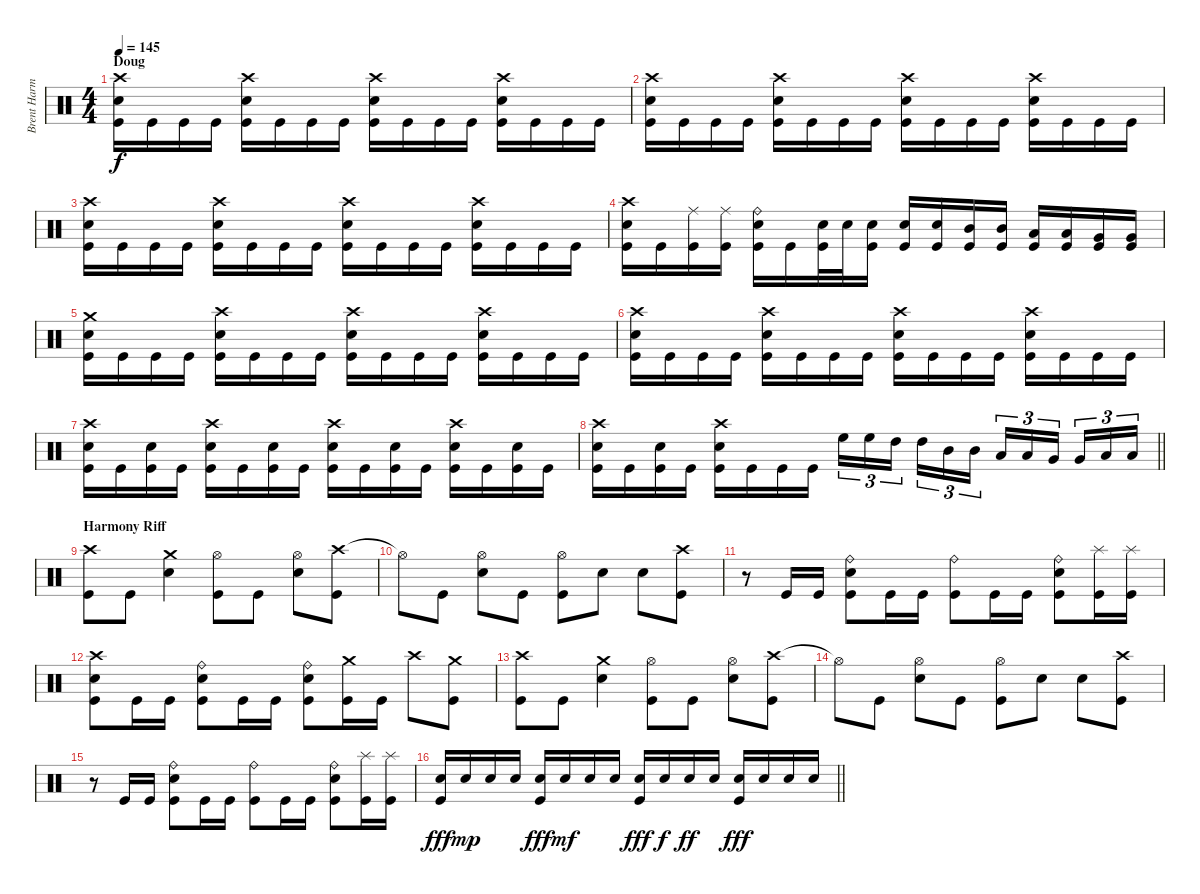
\track ("Brent Harman" "Brent Harm") {instrument percussion}
\staff {score}
\articulation defaults
\ts (4 4)
\section ("" "Doug")
\tempo 145
\clef neutral
\ks c
("Crash high (hit)" "Snare (hit) 2" "Kick (hit)").16{dy f} "Kick (hit)".16 "Kick (hit)".16 "Kick (hit)".16 ("Crash high (hit)" "Snare (hit) 2" "Kick (hit)").16 "Kick (hit)".16 "Kick (hit)".16 "Kick (hit)".16 ("Crash high (hit)" "Snare (hit) 2" "Kick (hit)").16 "Kick (hit)".16 "Kick (hit)".16 "Kick (hit)".16 ("Crash high (hit)" "Snare (hit) 2" "Kick (hit)").16 "Kick (hit)".16 "Kick (hit)".16 "Kick (hit)".16 |
("Crash high (hit)" "Snare (hit) 2" "Kick (hit)").16 "Kick (hit)".16 "Kick (hit)".16 "Kick (hit)".16 ("Crash high (hit)" "Snare (hit) 2" "Kick (hit)").16 "Kick (hit)".16 "Kick (hit)".16 "Kick (hit)".16 ("Crash high (hit)" "Snare (hit) 2" "Kick (hit)").16 "Kick (hit)".16 "Kick (hit)".16 "Kick (hit)".16 ("Crash high (hit)" "Snare (hit) 2" "Kick (hit)").16 "Kick (hit)".16 "Kick (hit)".16 "Kick (hit)".16 |
("Crash high (hit)" "Snare (hit) 2" "Kick (hit)").16 "Kick (hit)".16 "Kick (hit)".16 "Kick (hit)".16 ("Crash high (hit)" "Snare (hit) 2" "Kick (hit)").16 "Kick (hit)".16 "Kick (hit)".16 "Kick (hit)".16 ("Crash high (hit)" "Snare (hit) 2" "Kick (hit)").16 "Kick (hit)".16 "Kick (hit)".16 "Kick (hit)".16 ("Crash high (hit)" "Snare (hit) 2" "Kick (hit)").16 "Kick (hit)".16 "Kick (hit)".16 "Kick (hit)".16 |
("Crash high (hit)" "Snare (hit) 2" "Kick (hit)").16 "Kick (hit)".16 ("Ride (middle)" "Kick (hit)").16 ("Ride (middle)" "Kick (hit)").16 ("Ride (bell)" "Snare (hit) 2" "Kick (hit)").16 "Kick (hit)".16 ("Snare (hit) 2" "Kick (hit)").32 "Snare (hit) 2".32 ("Snare (hit) 2" "Kick (hit)").16 ("Snare (hit) 2" "Kick (hit)").16 ("Snare (hit) 2" "Kick (hit)").16 ("Mid Tom (hit)" "Kick (hit)").16 ("Mid Tom (hit)" "Kick (hit)").16 ("Low Tom (hit)" "Kick (hit)").16 ("Low Tom (hit)" "Kick (hit)").16 ("Very Low Tom (hit)" "Kick (hit)").16 ("Very Low Tom (hit)" "Kick (hit)").16 |
("Crash medium (hit)" "Snare (hit) 2" "Kick (hit)").16 "Kick (hit)".16 "Kick (hit)".16 "Kick (hit)".16 ("Crash high (hit)" "Snare (hit) 2" "Kick (hit)").16 "Kick (hit)".16 "Kick (hit)".16 "Kick (hit)".16 ("Crash high (hit)" "Snare (hit) 2" "Kick (hit)").16 "Kick (hit)".16 "Kick (hit)".16 "Kick (hit)".16 ("Crash high (hit)" "Snare (hit) 2" "Kick (hit)").16 "Kick (hit)".16 "Kick (hit)".16 "Kick (hit)".16 |
("Crash high (hit)" "Snare (hit) 2" "Kick (hit)").16 "Kick (hit)".16 "Kick (hit)".16 "Kick (hit)".16 ("Crash high (hit)" "Snare (hit) 2" "Kick (hit)").16 "Kick (hit)".16 "Kick (hit)".16 "Kick (hit)".16 ("Crash high (hit)" "Snare (hit) 2" "Kick (hit)").16 "Kick (hit)".16 "Kick (hit)".16 "Kick (hit)".16 ("Crash high (hit)" "Snare (hit) 2" "Kick (hit)").16 "Kick (hit)".16 "Kick (hit)".16 "Kick (hit)".16 |
("Crash high (hit)" "Snare (hit) 2" "Kick (hit)").16 "Kick (hit)".16 ("Snare (hit) 2" "Kick (hit)").16 "Kick (hit)".16 ("Crash high (hit)" "Snare (hit) 2" "Kick (hit)").16 "Kick (hit)".16 ("Snare (hit) 2" "Kick (hit)").16 "Kick (hit)".16 ("Crash high (hit)" "Snare (hit) 2" "Kick (hit)").16 "Kick (hit)".16 ("Snare (hit) 2" "Kick (hit)").16 "Kick (hit)".16 ("Crash high (hit)" "Snare (hit) 2" "Kick (hit)").16 "Kick (hit)".16 ("Snare (hit) 2" "Kick (hit)").16 "Kick (hit)".16 |
\barLineRight lightlight
("Crash high (hit)" "Snare (hit) 2" "Kick (hit)").16 "Kick (hit)".16 ("Snare (hit) 2" "Kick (hit)").16 "Kick (hit)".16 ("Crash high (hit)" "Snare (hit) 2" "Kick (hit)").16 "Kick (hit)".16 "Kick (hit)".16 "Kick (hit)".16 "High Floor Tom (hit)".16{tu (3 2)} "High Floor Tom (hit)".16{tu (3 2)} "High Tom (hit)".16{tu (3 2) beam splitsecondary} "High Tom (hit)".16{tu (3 2)} "Mid Tom (hit)".16{tu (3 2)} "Mid Tom (hit)".16{tu (3 2)} "Low Tom (hit)".16{tu (3 2)} "Low Tom (hit)".16{tu (3 2)} "Very Low Tom (hit)".16{tu (3 2) beam splitsecondary} "Very Low Tom (hit)".16{tu (3 2)} "Low Floor Tom (hit)".16{tu (3 2)} "Low Floor Tom (hit)".16{tu (3 2)} |
\section ("" "Harmony Riff")
("Crash high (hit)" "Kick (hit)").8 "Kick (hit)".8 ("Crash medium (hit)" "Snare (hit) 2").4 ("Hi-Hat (open)" "Kick (hit)").8 "Kick (hit)".8 ("Hi-Hat (open)" "Snare (hit) 2").8 ("Crash high (hit)" "Kick (hit)").8 |
"Hi-Hat (open)"{t}.8 "Kick (hit)".8 ("Hi-Hat (open)" "Snare (hit) 2").8 "Kick (hit)".8 ("Hi-Hat (open)" "Kick (hit)").8 "Snare (hit) 2".8 "Snare (hit) 2".8 ("Crash high (hit)" "Kick (hit)").8 |
r.8 "Kick (hit)".16 "Kick (hit)".16 ("Ride (bell)" "Snare (hit) 2" "Kick (hit)").8 "Kick (hit)".16 "Kick (hit)".16 ("Ride (bell)" "Kick (hit)").8 "Kick (hit)".16 "Kick (hit)".16 ("Ride (bell)" "Snare (hit) 2" "Kick (hit)").8 ("Splash (hit)" "Kick (hit)").16 ("Splash (hit)" "Kick (hit)").16 |
("Crash high (hit)" "Snare (hit) 2" "Kick (hit)").8 "Kick (hit)".16 "Kick (hit)".16 ("Ride (bell)" "Snare (hit) 2" "Kick (hit)").8 "Kick (hit)".16 "Kick (hit)".16 ("Ride (bell)" "Snare (hit) 2" "Kick (hit)").8 ("Crash medium (hit)" "Kick (hit)").16 "Kick (hit)".16 "Crash high (hit)".8 ("Crash medium (hit)" "Kick (hit)").8 |
("Crash high (hit)" "Kick (hit)").8 "Kick (hit)".8 ("Crash medium (hit)" "Snare (hit) 2").4 ("Hi-Hat (open)" "Kick (hit)").8 "Kick (hit)".8 ("Hi-Hat (open)" "Snare (hit) 2").8 ("Crash high (hit)" "Kick (hit)").8 |
"Hi-Hat (open)"{t}.8 "Kick (hit)".8 ("Hi-Hat (open)" "Snare (hit) 2").8 "Kick (hit)".8 ("Hi-Hat (open)" "Kick (hit)").8 "Snare (hit) 2".8 "Snare (hit) 2".8 ("Crash high (hit)" "Kick (hit)").8 |
r.8 "Kick (hit)".16 "Kick (hit)".16 ("Ride (bell)" "Snare (hit) 2" "Kick (hit)").8 "Kick (hit)".16 "Kick (hit)".16 ("Ride (bell)" "Kick (hit)").8 "Kick (hit)".16 "Kick (hit)".16 ("Ride (bell)" "Snare (hit) 2" "Kick (hit)").8 ("Splash (hit)" "Kick (hit)").16 ("Splash (hit)" "Kick (hit)").16 |
\barLineRight lightlight
("Snare (hit) 2" "Kick (hit)").16{dy fff} "Snare (hit) 2".16{dy mp} "Snare (hit) 2".16 "Snare (hit) 2".16 ("Snare (hit) 2" "Kick (hit)").16{dy fff} "Snare (hit) 2".16{dy mf} "Snare (hit) 2".16 "Snare (hit) 2".16 ("Snare (hit) 2" "Kick (hit)").16{dy fff} "Snare (hit) 2".16{dy f} "Snare (hit) 2".16{dy ff} "Snare (hit) 2".16 ("Snare (hit) 2" "Kick (hit)").16{dy fff} "Snare (hit) 2".16 "Snare (hit) 2".16 "Snare (hit) 2".16
